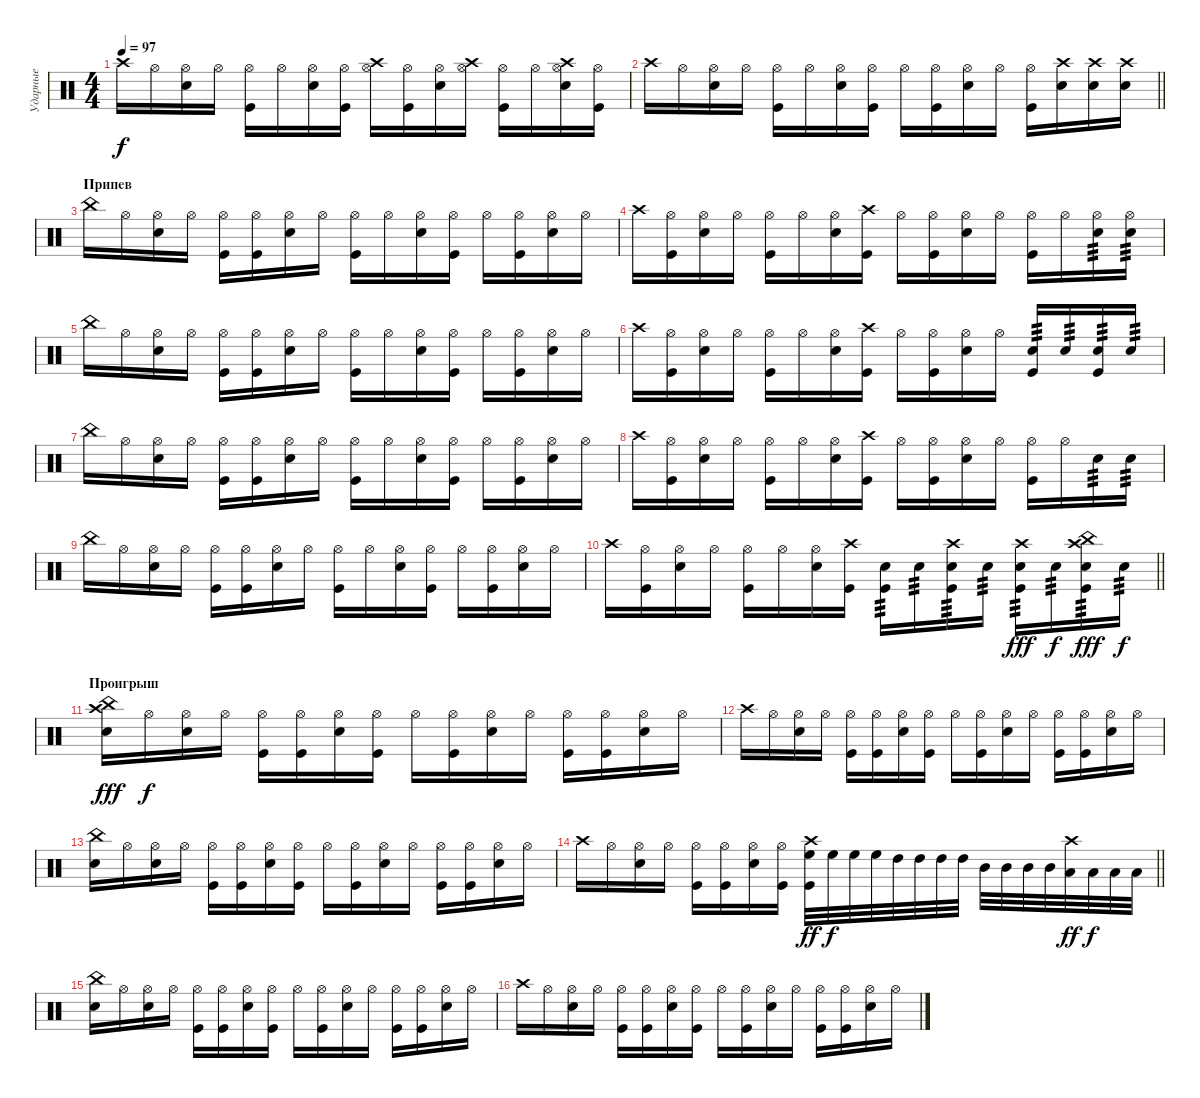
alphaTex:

\track ("Ударные" "Ударные") {instrument percussion}
\staff {score}
\articulation defaults
\ts (4 4)
\tempo 97
\clef neutral
\ks c "Crash high (hit)".16{dy f} "Hi-Hat (open)".16
("Hi-Hat (open)" "Electric Snare (hit)").16 "Hi-Hat (open)".16 ("Hi-Hat (open)" "Kick (hit)").16 "Hi-Hat (open)".16 ("Hi-Hat (open)" "Electric Snare (hit)").16 ("Hi-Hat (open)" "Kick (hit)").16 ("Hi-Hat (open)" "Crash high (hit)").16 ("Hi-Hat (open)" "Kick (hit)").16 ("Hi-Hat (open)" "Electric Snare (hit)").16 ("Hi-Hat (open)" "Crash high (hit)").16 ("Hi-Hat (open)" "Kick (hit)").16 "Hi-Hat (open)".16 ("Hi-Hat (open)" "Crash high (hit)" "Electric Snare (hit)").16 ("Hi-Hat (open)" "Kick (hit)").16 |
\barLineRight lightlight "Crash high (hit)".16 "Hi-Hat (open)".16
("Hi-Hat (open)" "Electric Snare (hit)").16 "Hi-Hat (open)".16 ("Hi-Hat (open)" "Kick (hit)").16 "Hi-Hat (open)".16 ("Hi-Hat (open)" "Electric Snare (hit)").16 ("Hi-Hat (open)" "Kick (hit)").16 "Hi-Hat (open)".16 ("Hi-Hat (open)" "Kick (hit)").16 ("Hi-Hat (open)" "Electric Snare (hit)").16 "Hi-Hat (open)".16 ("Hi-Hat (open)" "Kick (hit)").16 ("Crash high (hit)" "Snare (hit) 2").16 ("Crash high (hit)" "Snare (hit) 2").16 ("Crash high (hit)" "Snare (hit) 2").16 |
\section ("" "Припев")
"China (hit)".16 "Hi-Hat (open)".16 ("Hi-Hat (open)" "Electric Snare (hit)").16 "Hi-Hat (open)".16 ("Hi-Hat (open)" "Kick (hit)").16 ("Hi-Hat (open)" "Kick (hit)").16 ("Hi-Hat (open)" "Electric Snare (hit)").16 "Hi-Hat (open)".16 ("Hi-Hat (open)" "Kick (hit)").16 "Hi-Hat (open)".16 ("Hi-Hat (open)" "Electric Snare (hit)").16 ("Hi-Hat (open)" "Kick (hit)").16 "Hi-Hat (open)".16 ("Hi-Hat (open)" "Kick (hit)").16 ("Hi-Hat (open)" "Electric Snare (hit)").16 "Hi-Hat (open)".16 |
"Crash high (hit)".16 ("Hi-Hat (open)" "Kick (hit)").16 ("Hi-Hat (open)" "Electric Snare (hit)").16 "Hi-Hat (open)".16 ("Hi-Hat (open)" "Kick (hit)").16 "Hi-Hat (open)".16 ("Hi-Hat (open)" "Electric Snare (hit)").16 ("Crash high (hit)" "Kick (hit)").16 "Hi-Hat (open)".16 ("Hi-Hat (open)" "Kick (hit)").16 ("Hi-Hat (open)" "Electric Snare (hit)").16 "Hi-Hat (open)".16 ("Hi-Hat (open)" "Kick (hit)").16 "Hi-Hat (open)".16 ("Hi-Hat (open)" "Electric Snare (hit)").16{tp 3} ("Hi-Hat (open)" "Electric Snare (hit)").16{tp 3} |
"China (hit)".16 "Hi-Hat (open)".16 ("Hi-Hat (open)" "Electric Snare (hit)").16 "Hi-Hat (open)".16 ("Hi-Hat (open)" "Kick (hit)").16 ("Hi-Hat (open)" "Kick (hit)").16 ("Hi-Hat (open)" "Electric Snare (hit)").16 "Hi-Hat (open)".16 ("Hi-Hat (open)" "Kick (hit)").16 "Hi-Hat (open)".16 ("Hi-Hat (open)" "Electric Snare (hit)").16 ("Hi-Hat (open)" "Kick (hit)").16 "Hi-Hat (open)".16 ("Hi-Hat (open)" "Kick (hit)").16 ("Hi-Hat (open)" "Electric Snare (hit)").16 "Hi-Hat (open)".16 |
"Crash high (hit)".16 ("Hi-Hat (open)" "Kick (hit)").16 ("Hi-Hat (open)" "Electric Snare (hit)").16 "Hi-Hat (open)".16 ("Hi-Hat (open)" "Kick (hit)").16 "Hi-Hat (open)".16 ("Hi-Hat (open)" "Electric Snare (hit)").16 ("Crash high (hit)" "Kick (hit)").16 "Hi-Hat (open)".16 ("Hi-Hat (open)" "Kick (hit)").16 ("Hi-Hat (open)" "Electric Snare (hit)").16 "Hi-Hat (open)".16 ("Electric Snare (hit)" "Kick (hit)").16{tp 3} "Electric Snare (hit)".16{tp 3} ("Electric Snare (hit)" "Kick (hit)").16{tp 3} "Electric Snare (hit)".16{tp 3} |
"China (hit)".16 "Hi-Hat (open)".16 ("Hi-Hat (open)" "Electric Snare (hit)").16 "Hi-Hat (open)".16 ("Hi-Hat (open)" "Kick (hit)").16 ("Hi-Hat (open)" "Kick (hit)").16 ("Hi-Hat (open)" "Electric Snare (hit)").16 "Hi-Hat (open)".16 ("Hi-Hat (open)" "Kick (hit)").16 "Hi-Hat (open)".16 ("Hi-Hat (open)" "Electric Snare (hit)").16 ("Hi-Hat (open)" "Kick (hit)").16 "Hi-Hat (open)".16 ("Hi-Hat (open)" "Kick (hit)").16 ("Hi-Hat (open)" "Electric Snare (hit)").16 "Hi-Hat (open)".16 |
"Crash high (hit)".16 ("Hi-Hat (open)" "Kick (hit)").16 ("Hi-Hat (open)" "Electric Snare (hit)").16 "Hi-Hat (open)".16 ("Hi-Hat (open)" "Kick (hit)").16 "Hi-Hat (open)".16 ("Hi-Hat (open)" "Electric Snare (hit)").16 ("Crash high (hit)" "Kick (hit)").16 "Hi-Hat (open)".16 ("Hi-Hat (open)" "Kick (hit)").16 ("Hi-Hat (open)" "Electric Snare (hit)").16 "Hi-Hat (open)".16 ("Hi-Hat (open)" "Kick (hit)").16 "Hi-Hat (open)".16 "Electric Snare (hit)".16{tp 3} "Electric Snare (hit)".16{tp 3} |
"China (hit)".16 "Hi-Hat (open)".16 ("Hi-Hat (open)" "Electric Snare (hit)").16 "Hi-Hat (open)".16 ("Hi-Hat (open)" "Kick (hit)").16 ("Hi-Hat (open)" "Kick (hit)").16 ("Hi-Hat (open)" "Electric Snare (hit)").16 "Hi-Hat (open)".16 ("Hi-Hat (open)" "Kick (hit)").16 "Hi-Hat (open)".16 ("Hi-Hat (open)" "Electric Snare (hit)").16 ("Hi-Hat (open)" "Kick (hit)").16 "Hi-Hat (open)".16 ("Hi-Hat (open)" "Kick (hit)").16 ("Hi-Hat (open)" "Electric Snare (hit)").16 "Hi-Hat (open)".16 |
\barLineRight lightlight "Crash high (hit)".16
("Hi-Hat (open)" "Kick (hit)").16 ("Hi-Hat (open)" "Electric Snare (hit)").16 "Hi-Hat (open)".16 ("Hi-Hat (open)" "Kick (hit)").16 "Hi-Hat (open)".16 ("Hi-Hat (open)" "Electric Snare (hit)").16 ("Crash high (hit)" "Kick (hit)").16 ("Electric Snare (hit)" "Kick (hit)").16{tp 3} "Electric Snare (hit)".16{tp 3} ("Crash high (hit)" "Electric Snare (hit)" "Kick (hit)").16{tp 3} "Electric Snare (hit)".16{tp 3} ("Crash high (hit)" "Electric Snare (hit)" "Kick (hit)").16{tp 3 dy fff} "Electric Snare (hit)".16{tp 3 dy f} ("China (hit)" "Crash high (hit)" "Electric Snare (hit)" "Kick (hit)").16{tp 3 dy fff} "Electric Snare (hit)".16{tp 3 dy f} |
\section ("" "Проигрыш")
("Crash high (hit)" "China (hit)" "Snare (hit) 2").16{dy fff} "Hi-Hat (open)".16{dy f} ("Hi-Hat (open)" "Electric Snare (hit)").16 "Hi-Hat (open)".16 ("Hi-Hat (open)" "Kick (hit)").16 ("Hi-Hat (open)" "Kick (hit)").16 ("Hi-Hat (open)" "Electric Snare (hit)").16 ("Hi-Hat (open)" "Kick (hit)").16 "Hi-Hat (open)".16 ("Hi-Hat (open)" "Kick (hit)").16 ("Hi-Hat (open)" "Electric Snare (hit)").16 "Hi-Hat (open)".16 ("Hi-Hat (open)" "Kick (hit)").16 ("Hi-Hat (open)" "Kick (hit)").16 ("Hi-Hat (open)" "Electric Snare (hit)").16 "Hi-Hat (open)".16 |
"Crash high (hit)".16 "Hi-Hat (open)".16 ("Hi-Hat (open)" "Electric Snare (hit)").16 "Hi-Hat (open)".16 ("Hi-Hat (open)" "Kick (hit)").16 ("Hi-Hat (open)" "Kick (hit)").16 ("Hi-Hat (open)" "Electric Snare (hit)").16 ("Hi-Hat (open)" "Kick (hit)").16 "Hi-Hat (open)".16 ("Hi-Hat (open)" "Kick (hit)").16 ("Hi-Hat (open)" "Electric Snare (hit)").16 "Hi-Hat (open)".16 ("Hi-Hat (open)" "Kick (hit)").16 ("Hi-Hat (open)" "Kick (hit)").16 ("Hi-Hat (open)" "Electric Snare (hit)").16 "Hi-Hat (open)".16 |
("China (hit)" "Snare (hit) 2").16 "Hi-Hat (open)".16 ("Hi-Hat (open)" "Electric Snare (hit)").16 "Hi-Hat (open)".16 ("Hi-Hat (open)" "Kick (hit)").16 ("Hi-Hat (open)" "Kick (hit)").16 ("Hi-Hat (open)" "Electric Snare (hit)").16 ("Hi-Hat (open)" "Kick (hit)").16 "Hi-Hat (open)".16 ("Hi-Hat (open)" "Kick (hit)").16 ("Hi-Hat (open)" "Electric Snare (hit)").16 "Hi-Hat (open)".16 ("Hi-Hat (open)" "Kick (hit)").16 ("Hi-Hat (open)" "Kick (hit)").16 ("Hi-Hat (open)" "Electric Snare (hit)").16 "Hi-Hat (open)".16 |
\barLineRight lightlight "Crash high (hit)".16 "Hi-Hat (open)".16
("Hi-Hat (open)" "Electric Snare (hit)").16 "Hi-Hat (open)".16 ("Hi-Hat (open)" "Kick (hit)").16 ("Hi-Hat (open)" "Kick (hit)").16 ("Hi-Hat (open)" "Electric Snare (hit)").16 ("Hi-Hat (open)" "Kick (hit)").16 ("Crash high (hit)" "High Floor Tom (hit)" "Kick (hit)").32{dy ff} "High Floor Tom (hit)".32{dy f} "High Floor Tom (hit)".32 "High Floor Tom (hit)".32 "High Tom (hit)".32 "High Tom (hit)".32 "High Tom (hit)".32 "High Tom (hit)".32 "Mid Tom (hit)".32 "Mid Tom (hit)".32 "Mid Tom (hit)".32 "Mid Tom (hit)".32 ("Crash high (hit)" "Low Tom (hit)").32{dy ff} "Low Tom (hit)".32{dy f} "Low Tom (hit)".32 "Low Tom (hit)".32 |
("China (hit)" "Snare (hit) 2").16 "Hi-Hat (open)".16 ("Hi-Hat (open)" "Electric Snare (hit)").16 "Hi-Hat (open)".16 ("Hi-Hat (open)" "Kick (hit)").16 ("Hi-Hat (open)" "Kick (hit)").16 ("Hi-Hat (open)" "Electric Snare (hit)").16 ("Hi-Hat (open)" "Kick (hit)").16 "Hi-Hat (open)".16 ("Hi-Hat (open)" "Kick (hit)").16 ("Hi-Hat (open)" "Electric Snare (hit)").16 "Hi-Hat (open)".16 ("Hi-Hat (open)" "Kick (hit)").16 ("Hi-Hat (open)" "Kick (hit)").16 ("Hi-Hat (open)" "Electric Snare (hit)").16 "Hi-Hat (open)".16 |
"Crash high (hit)".16 "Hi-Hat (open)".16 ("Hi-Hat (open)" "Electric Snare (hit)").16 "Hi-Hat (open)".16 ("Hi-Hat (open)" "Kick (hit)").16 ("Hi-Hat (open)" "Kick (hit)").16 ("Hi-Hat (open)" "Electric Snare (hit)").16 ("Hi-Hat (open)" "Kick (hit)").16 "Hi-Hat (open)".16 ("Hi-Hat (open)" "Kick (hit)").16 ("Hi-Hat (open)" "Electric Snare (hit)").16 "Hi-Hat (open)".16 ("Hi-Hat (open)" "Kick (hit)").16 ("Hi-Hat (open)" "Kick (hit)").16 ("Hi-Hat (open)" "Electric Snare (hit)").16 "Hi-Hat (open)".16
